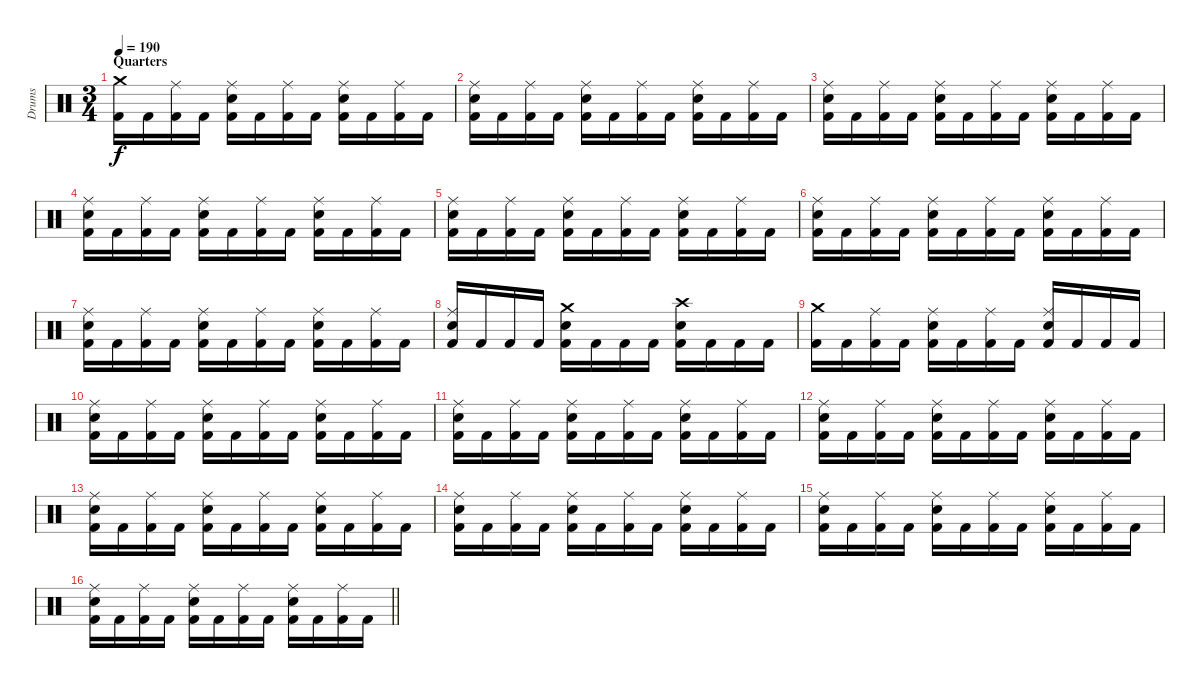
\track ("Drums" "Drums") {instrument percussion}
\staff {score}
\articulation defaults
\ts (3 4)
\section ("" "Quarters")
\tempo 190
\clef neutral
\ks c
("Crash medium (hit)" "Kick (hit) 2").16{dy f} "Kick (hit) 2".16 ("Ride (middle)" "Kick (hit) 2").16 "Kick (hit) 2".16 ("Ride (middle)" "Electric Snare (hit)" "Kick (hit) 2").16 "Kick (hit) 2".16 ("Ride (middle)" "Kick (hit) 2").16 "Kick (hit) 2".16 ("Ride (middle)" "Electric Snare (hit)" "Kick (hit) 2").16 "Kick (hit) 2".16 ("Ride (middle)" "Kick (hit) 2").16 "Kick (hit) 2".16 |
("Ride (middle)" "Electric Snare (hit)" "Kick (hit) 2").16 "Kick (hit) 2".16 ("Ride (middle)" "Kick (hit) 2").16 "Kick (hit) 2".16 ("Ride (middle)" "Electric Snare (hit)" "Kick (hit) 2").16 "Kick (hit) 2".16 ("Ride (middle)" "Kick (hit) 2").16 "Kick (hit) 2".16 ("Ride (middle)" "Electric Snare (hit)" "Kick (hit) 2").16 "Kick (hit) 2".16 ("Ride (middle)" "Kick (hit) 2").16 "Kick (hit) 2".16 |
("Ride (middle)" "Electric Snare (hit)" "Kick (hit) 2").16 "Kick (hit) 2".16 ("Ride (middle)" "Kick (hit) 2").16 "Kick (hit) 2".16 ("Ride (middle)" "Electric Snare (hit)" "Kick (hit) 2").16 "Kick (hit) 2".16 ("Ride (middle)" "Kick (hit) 2").16 "Kick (hit) 2".16 ("Ride (middle)" "Electric Snare (hit)" "Kick (hit) 2").16 "Kick (hit) 2".16 ("Ride (middle)" "Kick (hit) 2").16 "Kick (hit) 2".16 |
("Ride (middle)" "Electric Snare (hit)" "Kick (hit) 2").16 "Kick (hit) 2".16 ("Ride (middle)" "Kick (hit) 2").16 "Kick (hit) 2".16 ("Ride (middle)" "Electric Snare (hit)" "Kick (hit) 2").16 "Kick (hit) 2".16 ("Ride (middle)" "Kick (hit) 2").16 "Kick (hit) 2".16 ("Ride (middle)" "Electric Snare (hit)" "Kick (hit) 2").16 "Kick (hit) 2".16 ("Ride (middle)" "Kick (hit) 2").16 "Kick (hit) 2".16 |
("Ride (middle)" "Electric Snare (hit)" "Kick (hit) 2").16 "Kick (hit) 2".16 ("Ride (middle)" "Kick (hit) 2").16 "Kick (hit) 2".16 ("Ride (middle)" "Electric Snare (hit)" "Kick (hit) 2").16 "Kick (hit) 2".16 ("Ride (middle)" "Kick (hit) 2").16 "Kick (hit) 2".16 ("Ride (middle)" "Electric Snare (hit)" "Kick (hit) 2").16 "Kick (hit) 2".16 ("Ride (middle)" "Kick (hit) 2").16 "Kick (hit) 2".16 |
("Ride (middle)" "Electric Snare (hit)" "Kick (hit) 2").16 "Kick (hit) 2".16 ("Ride (middle)" "Kick (hit) 2").16 "Kick (hit) 2".16 ("Ride (middle)" "Electric Snare (hit)" "Kick (hit) 2").16 "Kick (hit) 2".16 ("Ride (middle)" "Kick (hit) 2").16 "Kick (hit) 2".16 ("Ride (middle)" "Electric Snare (hit)" "Kick (hit) 2").16 "Kick (hit) 2".16 ("Ride (middle)" "Kick (hit) 2").16 "Kick (hit) 2".16 |
("Ride (middle)" "Electric Snare (hit)" "Kick (hit) 2").16 "Kick (hit) 2".16 ("Ride (middle)" "Kick (hit) 2").16 "Kick (hit) 2".16 ("Ride (middle)" "Electric Snare (hit)" "Kick (hit) 2").16 "Kick (hit) 2".16 ("Ride (middle)" "Kick (hit) 2").16 "Kick (hit) 2".16 ("Ride (middle)" "Electric Snare (hit)" "Kick (hit) 2").16 "Kick (hit) 2".16 ("Ride (middle)" "Kick (hit) 2").16 "Kick (hit) 2".16 |
("Ride (middle)" "Electric Snare (hit)" "Kick (hit) 2").16 "Kick (hit) 2".16 "Kick (hit) 2".16 "Kick (hit) 2".16 ("Crash medium (hit)" "Electric Snare (hit)" "Kick (hit) 2").16 "Kick (hit) 2".16 "Kick (hit) 2".16 "Kick (hit) 2".16 ("Crash high (hit)" "Electric Snare (hit)" "Kick (hit) 2").16 "Kick (hit) 2".16 "Kick (hit) 2".16 "Kick (hit) 2".16 |
("Crash medium (hit)" "Kick (hit) 2").16 "Kick (hit) 2".16 ("Ride (middle)" "Kick (hit) 2").16 "Kick (hit) 2".16 ("Ride (middle)" "Electric Snare (hit)" "Kick (hit) 2").16 "Kick (hit) 2".16 ("Ride (middle)" "Kick (hit) 2").16 "Kick (hit) 2".16 ("Ride (middle)" "Electric Snare (hit)" "Kick (hit) 2").16 "Kick (hit) 2".16 "Kick (hit) 2".16 "Kick (hit) 2".16 |
("Ride (middle)" "Electric Snare (hit)" "Kick (hit) 2").16 "Kick (hit) 2".16 ("Ride (middle)" "Kick (hit) 2").16 "Kick (hit) 2".16 ("Ride (middle)" "Electric Snare (hit)" "Kick (hit) 2").16 "Kick (hit) 2".16 ("Ride (middle)" "Kick (hit) 2").16 "Kick (hit) 2".16 ("Ride (middle)" "Electric Snare (hit)" "Kick (hit) 2").16 "Kick (hit) 2".16 ("Ride (middle)" "Kick (hit) 2").16 "Kick (hit) 2".16 |
("Ride (middle)" "Electric Snare (hit)" "Kick (hit) 2").16 "Kick (hit) 2".16 ("Ride (middle)" "Kick (hit) 2").16 "Kick (hit) 2".16 ("Ride (middle)" "Electric Snare (hit)" "Kick (hit) 2").16 "Kick (hit) 2".16 ("Ride (middle)" "Kick (hit) 2").16 "Kick (hit) 2".16 ("Ride (middle)" "Electric Snare (hit)" "Kick (hit) 2").16 "Kick (hit) 2".16 ("Ride (middle)" "Kick (hit) 2").16 "Kick (hit) 2".16 |
("Ride (middle)" "Electric Snare (hit)" "Kick (hit) 2").16 "Kick (hit) 2".16 ("Ride (middle)" "Kick (hit) 2").16 "Kick (hit) 2".16 ("Ride (middle)" "Electric Snare (hit)" "Kick (hit) 2").16 "Kick (hit) 2".16 ("Ride (middle)" "Kick (hit) 2").16 "Kick (hit) 2".16 ("Ride (middle)" "Electric Snare (hit)" "Kick (hit) 2").16 "Kick (hit) 2".16 ("Ride (middle)" "Kick (hit) 2").16 "Kick (hit) 2".16 |
("Ride (middle)" "Electric Snare (hit)" "Kick (hit) 2").16 "Kick (hit) 2".16 ("Ride (middle)" "Kick (hit) 2").16 "Kick (hit) 2".16 ("Ride (middle)" "Electric Snare (hit)" "Kick (hit) 2").16 "Kick (hit) 2".16 ("Ride (middle)" "Kick (hit) 2").16 "Kick (hit) 2".16 ("Ride (middle)" "Electric Snare (hit)" "Kick (hit) 2").16 "Kick (hit) 2".16 ("Ride (middle)" "Kick (hit) 2").16 "Kick (hit) 2".16 |
("Ride (middle)" "Electric Snare (hit)" "Kick (hit) 2").16 "Kick (hit) 2".16 ("Ride (middle)" "Kick (hit) 2").16 "Kick (hit) 2".16 ("Ride (middle)" "Electric Snare (hit)" "Kick (hit) 2").16 "Kick (hit) 2".16 ("Ride (middle)" "Kick (hit) 2").16 "Kick (hit) 2".16 ("Ride (middle)" "Electric Snare (hit)" "Kick (hit) 2").16 "Kick (hit) 2".16 ("Ride (middle)" "Kick (hit) 2").16 "Kick (hit) 2".16 |
("Ride (middle)" "Electric Snare (hit)" "Kick (hit) 2").16 "Kick (hit) 2".16 ("Ride (middle)" "Kick (hit) 2").16 "Kick (hit) 2".16 ("Ride (middle)" "Electric Snare (hit)" "Kick (hit) 2").16 "Kick (hit) 2".16 ("Ride (middle)" "Kick (hit) 2").16 "Kick (hit) 2".16 ("Ride (middle)" "Electric Snare (hit)" "Kick (hit) 2").16 "Kick (hit) 2".16 ("Ride (middle)" "Kick (hit) 2").16 "Kick (hit) 2".16 |
\barLineRight lightlight
("Ride (middle)" "Electric Snare (hit)" "Kick (hit) 2").16 "Kick (hit) 2".16 ("Ride (middle)" "Kick (hit) 2").16 "Kick (hit) 2".16 ("Ride (middle)" "Electric Snare (hit)" "Kick (hit) 2").16 "Kick (hit) 2".16 ("Ride (middle)" "Kick (hit) 2").16 "Kick (hit) 2".16 ("Ride (middle)" "Electric Snare (hit)" "Kick (hit) 2").16 "Kick (hit) 2".16 ("Ride (middle)" "Kick (hit) 2").16 "Kick (hit) 2".16
